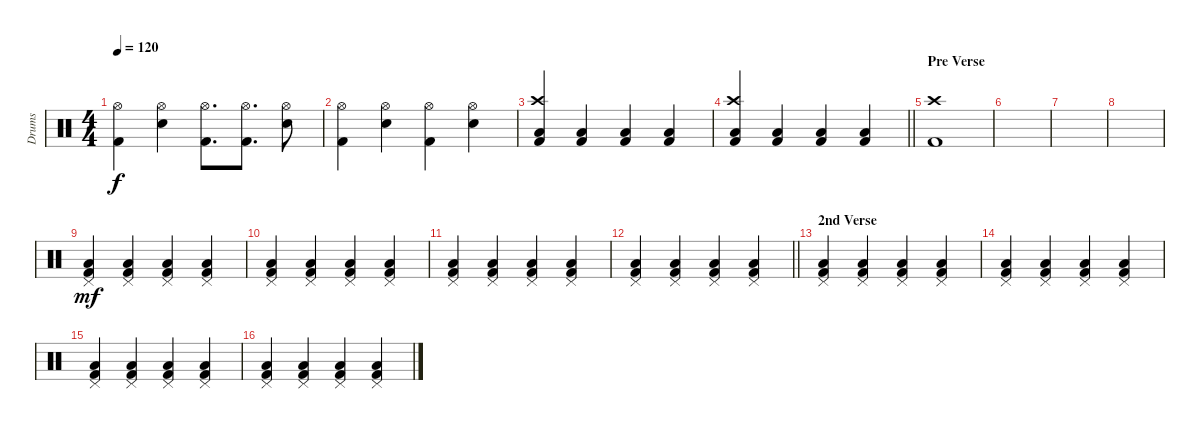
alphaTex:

\track ("Drums" "Drums") {instrument percussion}
\staff {score}
\articulation defaults
\ts (4 4)
\tempo 120
\clef neutral
\ks c
("Hi-Hat (open)" "Kick (hit) 2").4{dy f} ("Hi-Hat (open)" "Snare (hit) 2").4 ("Hi-Hat (open)" "Kick (hit) 2").8{d} ("Hi-Hat (open)" "Kick (hit) 2").8{d} ("Hi-Hat (open)" "Snare (hit) 2").8 |
("Hi-Hat (open)" "Kick (hit) 2").4 ("Hi-Hat (open)" "Snare (hit) 2").4 ("Hi-Hat (open)" "Kick (hit) 2").4 ("Hi-Hat (open)" "Snare (hit) 2").4 |
("Crash high (hit)" "Low Floor Tom (hit)" "Kick (hit) 2").4 ("Low Floor Tom (hit)" "Kick (hit) 2").4 ("Low Floor Tom (hit)" "Kick (hit) 2").4 ("Low Floor Tom (hit)" "Kick (hit) 2").4 |
\barLineRight lightlight
("Crash high (hit)" "Low Floor Tom (hit)" "Kick (hit) 2").4 ("Low Floor Tom (hit)" "Kick (hit) 2").4 ("Low Floor Tom (hit)" "Kick (hit) 2").4 ("Low Floor Tom (hit)" "Kick (hit) 2").4 |
\section ("" "Pre Verse")
("Crash high (hit)" "Kick (hit) 2").1 |
|
|
|
("Pedal Hi-Hat (hit)" "Low Floor Tom (hit)" "Kick (hit) 2").4{dy mf} ("Pedal Hi-Hat (hit)" "Low Floor Tom (hit)" "Kick (hit) 2").4 ("Pedal Hi-Hat (hit)" "Low Floor Tom (hit)" "Kick (hit) 2").4 ("Pedal Hi-Hat (hit)" "Low Floor Tom (hit)" "Kick (hit) 2").4 |
("Pedal Hi-Hat (hit)" "Low Floor Tom (hit)" "Kick (hit) 2").4 ("Pedal Hi-Hat (hit)" "Low Floor Tom (hit)" "Kick (hit) 2").4 ("Pedal Hi-Hat (hit)" "Low Floor Tom (hit)" "Kick (hit) 2").4 ("Pedal Hi-Hat (hit)" "Low Floor Tom (hit)" "Kick (hit) 2").4 |
("Pedal Hi-Hat (hit)" "Low Floor Tom (hit)" "Kick (hit) 2").4 ("Pedal Hi-Hat (hit)" "Low Floor Tom (hit)" "Kick (hit) 2").4 ("Pedal Hi-Hat (hit)" "Low Floor Tom (hit)" "Kick (hit) 2").4 ("Pedal Hi-Hat (hit)" "Low Floor Tom (hit)" "Kick (hit) 2").4 |
\barLineRight lightlight
("Pedal Hi-Hat (hit)" "Low Floor Tom (hit)" "Kick (hit) 2").4 ("Pedal Hi-Hat (hit)" "Low Floor Tom (hit)" "Kick (hit) 2").4 ("Pedal Hi-Hat (hit)" "Low Floor Tom (hit)" "Kick (hit) 2").4 ("Pedal Hi-Hat (hit)" "Low Floor Tom (hit)" "Kick (hit) 2").4 |
\section ("" "2nd Verse")
("Pedal Hi-Hat (hit)" "Low Floor Tom (hit)" "Kick (hit) 2").4 ("Pedal Hi-Hat (hit)" "Low Floor Tom (hit)" "Kick (hit) 2").4 ("Pedal Hi-Hat (hit)" "Low Floor Tom (hit)" "Kick (hit) 2").4 ("Pedal Hi-Hat (hit)" "Low Floor Tom (hit)" "Kick (hit) 2").4 |
("Pedal Hi-Hat (hit)" "Low Floor Tom (hit)" "Kick (hit) 2").4 ("Pedal Hi-Hat (hit)" "Low Floor Tom (hit)" "Kick (hit) 2").4 ("Pedal Hi-Hat (hit)" "Low Floor Tom (hit)" "Kick (hit) 2").4 ("Pedal Hi-Hat (hit)" "Low Floor Tom (hit)" "Kick (hit) 2").4 |
("Pedal Hi-Hat (hit)" "Low Floor Tom (hit)" "Kick (hit) 2").4 ("Pedal Hi-Hat (hit)" "Low Floor Tom (hit)" "Kick (hit) 2").4 ("Pedal Hi-Hat (hit)" "Low Floor Tom (hit)" "Kick (hit) 2").4 ("Pedal Hi-Hat (hit)" "Low Floor Tom (hit)" "Kick (hit) 2").4 |
("Pedal Hi-Hat (hit)" "Low Floor Tom (hit)" "Kick (hit) 2").4 ("Pedal Hi-Hat (hit)" "Low Floor Tom (hit)" "Kick (hit) 2").4 ("Pedal Hi-Hat (hit)" "Low Floor Tom (hit)" "Kick (hit) 2").4 ("Pedal Hi-Hat (hit)" "Low Floor Tom (hit)" "Kick (hit) 2").4
